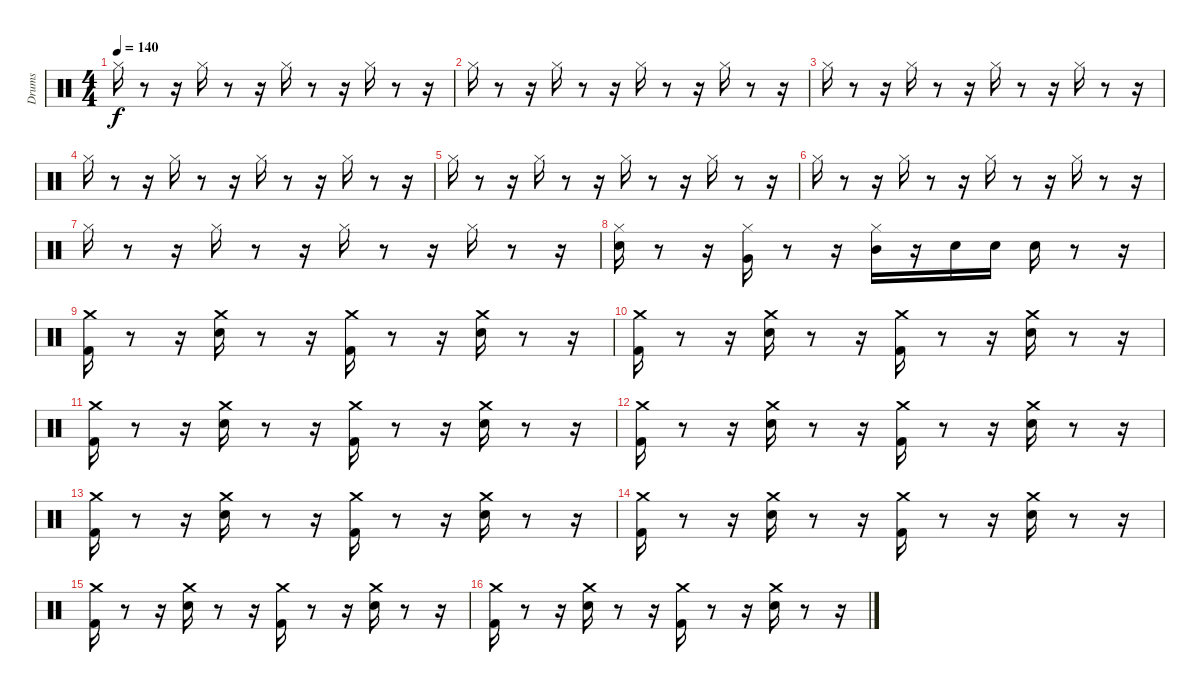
\track ("Drums               " "Drums     ") {instrument percussion}
\staff {score}
\articulation defaults
\ts (4 4)
\tempo 140
\clef neutral
\ks c "Hi-Hat (closed)".16{dy f}
r.8 r.16 "Hi-Hat (closed)".16 r.8 r.16 "Hi-Hat (closed)".16 r.8 r.16 "Hi-Hat (closed)".16 r.8 r.16 |
"Hi-Hat (closed)".16 r.8 r.16 "Hi-Hat (closed)".16 r.8 r.16 "Hi-Hat (closed)".16 r.8 r.16 "Hi-Hat (closed)".16 r.8 r.16 |
"Hi-Hat (closed)".16 r.8 r.16 "Hi-Hat (closed)".16 r.8 r.16 "Hi-Hat (closed)".16 r.8 r.16 "Hi-Hat (closed)".16 r.8 r.16 |
"Hi-Hat (closed)".16 r.8 r.16 "Hi-Hat (closed)".16 r.8 r.16 "Hi-Hat (closed)".16 r.8 r.16 "Hi-Hat (closed)".16 r.8 r.16 |
"Hi-Hat (closed)".16 r.8 r.16 "Hi-Hat (closed)".16 r.8 r.16 "Hi-Hat (closed)".16 r.8 r.16 "Hi-Hat (closed)".16 r.8 r.16 |
"Hi-Hat (closed)".16 r.8 r.16 "Hi-Hat (closed)".16 r.8 r.16 "Hi-Hat (closed)".16 r.8 r.16 "Hi-Hat (closed)".16 r.8 r.16 |
"Hi-Hat (closed)".16 r.8 r.16 "Hi-Hat (closed)".16 r.8 r.16 "Hi-Hat (closed)".16 r.8 r.16 "Hi-Hat (closed)".16 r.8 r.16 |
("Hi-Hat (closed)" "Electric Snare (hit)").16 r.8 r.16 ("Hi-Hat (closed)" "Very Low Tom (hit)").16 r.8 r.16 ("Hi-Hat (closed)" "Mid Tom (hit)").16 r.16 "Electric Snare (hit)".16 "Electric Snare (hit)".16 "Electric Snare (hit)".16 r.8 r.16 |
("Kick (hit) 2" "Crash medium (hit)").16 r.8 r.16 ("Electric Snare (hit)" "Crash medium (hit)").16 r.8 r.16 ("Kick (hit) 2" "Crash medium (hit)").16 r.8 r.16 ("Electric Snare (hit)" "Crash medium (hit)").16 r.8 r.16 |
("Kick (hit) 2" "Crash medium (hit)").16 r.8 r.16 ("Electric Snare (hit)" "Crash medium (hit)").16 r.8 r.16 ("Kick (hit) 2" "Crash medium (hit)").16 r.8 r.16 ("Electric Snare (hit)" "Crash medium (hit)").16 r.8 r.16 |
("Kick (hit) 2" "Crash medium (hit)").16 r.8 r.16 ("Electric Snare (hit)" "Crash medium (hit)").16 r.8 r.16 ("Kick (hit) 2" "Crash medium (hit)").16 r.8 r.16 ("Electric Snare (hit)" "Crash medium (hit)").16 r.8 r.16 |
("Kick (hit) 2" "Crash medium (hit)").16 r.8 r.16 ("Electric Snare (hit)" "Crash medium (hit)").16 r.8 r.16 ("Kick (hit) 2" "Crash medium (hit)").16 r.8 r.16 ("Electric Snare (hit)" "Crash medium (hit)").16 r.8 r.16 |
("Kick (hit) 2" "Crash medium (hit)").16 r.8 r.16 ("Electric Snare (hit)" "Crash medium (hit)").16 r.8 r.16 ("Kick (hit) 2" "Crash medium (hit)").16 r.8 r.16 ("Electric Snare (hit)" "Crash medium (hit)").16 r.8 r.16 |
("Kick (hit) 2" "Crash medium (hit)").16 r.8 r.16 ("Electric Snare (hit)" "Crash medium (hit)").16 r.8 r.16 ("Kick (hit) 2" "Crash medium (hit)").16 r.8 r.16 ("Electric Snare (hit)" "Crash medium (hit)").16 r.8 r.16 |
("Kick (hit) 2" "Crash medium (hit)").16 r.8 r.16 ("Electric Snare (hit)" "Crash medium (hit)").16 r.8 r.16 ("Kick (hit) 2" "Crash medium (hit)").16 r.8 r.16 ("Electric Snare (hit)" "Crash medium (hit)").16 r.8 r.16 |
("Kick (hit) 2" "Crash medium (hit)").16 r.8 r.16 ("Electric Snare (hit)" "Crash medium (hit)").16 r.8 r.16 ("Kick (hit) 2" "Crash medium (hit)").16 r.8 r.16 ("Electric Snare (hit)" "Crash medium (hit)").16 r.8 r.16
